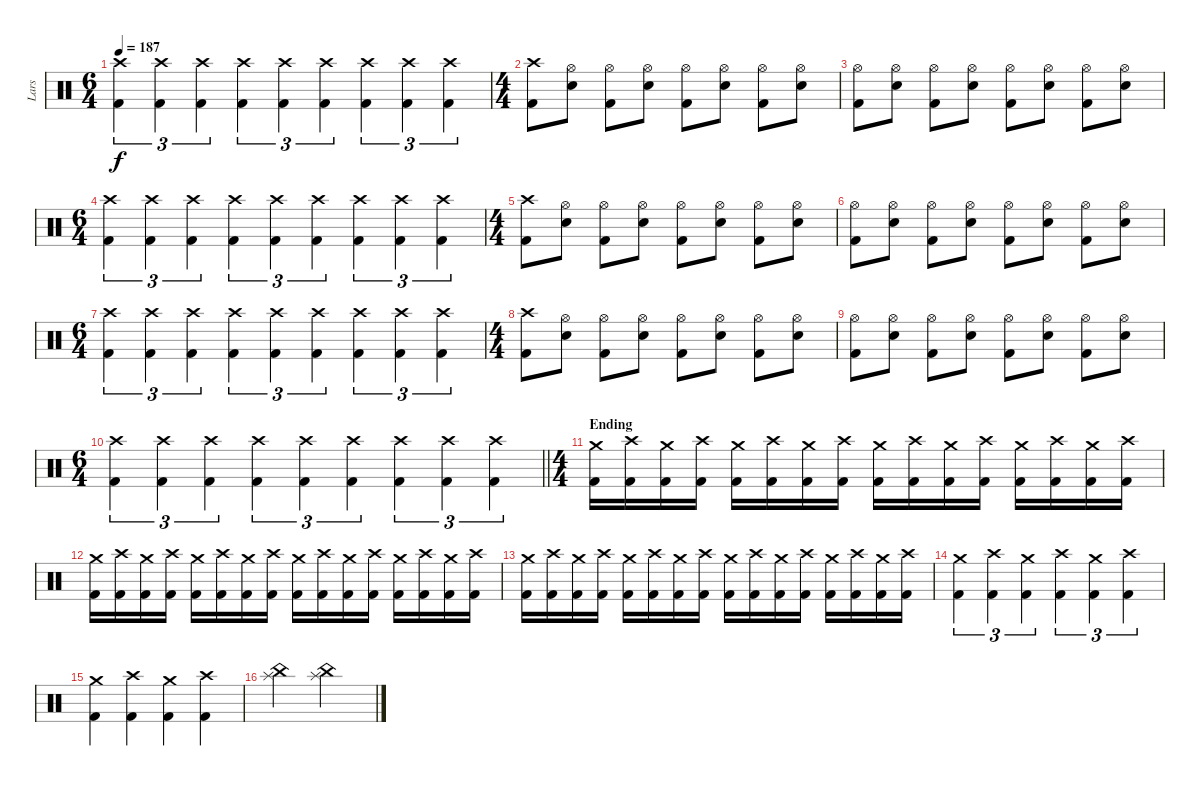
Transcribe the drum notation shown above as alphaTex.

\track ("Lars" "Lars") {instrument percussion}
\staff {score}
\articulation defaults
\ts (6 4)
\tempo 187
\clef neutral
\ks c
("Crash high (hit)" "Kick (hit) 2").4{tu (3 2) dy f} ("Crash high (hit)" "Kick (hit) 2").4{tu (3 2)} ("Crash high (hit)" "Kick (hit) 2").4{tu (3 2)} ("Crash high (hit)" "Kick (hit) 2").4{tu (3 2)} ("Crash high (hit)" "Kick (hit) 2").4{tu (3 2)} ("Crash high (hit)" "Kick (hit) 2").4{tu (3 2)} ("Crash high (hit)" "Kick (hit) 2").4{tu (3 2)} ("Crash high (hit)" "Kick (hit) 2").4{tu (3 2)} ("Crash high (hit)" "Kick (hit) 2").4{tu (3 2)} |
\ts (4 4)
("Crash high (hit)" "Kick (hit) 2").8 ("Hi-Hat (open)" "Snare (hit) 2").8 ("Hi-Hat (open)" "Kick (hit) 2").8 ("Hi-Hat (open)" "Snare (hit) 2").8 ("Hi-Hat (open)" "Kick (hit) 2").8 ("Hi-Hat (open)" "Snare (hit) 2").8 ("Hi-Hat (open)" "Kick (hit) 2").8 ("Hi-Hat (open)" "Snare (hit) 2").8 |
("Hi-Hat (open)" "Kick (hit) 2").8 ("Hi-Hat (open)" "Snare (hit) 2").8 ("Hi-Hat (open)" "Kick (hit) 2").8 ("Hi-Hat (open)" "Snare (hit) 2").8 ("Hi-Hat (open)" "Kick (hit) 2").8 ("Hi-Hat (open)" "Snare (hit) 2").8 ("Hi-Hat (open)" "Kick (hit) 2").8 ("Hi-Hat (open)" "Snare (hit) 2").8 |
\ts (6 4)
("Crash high (hit)" "Kick (hit) 2").4{tu (3 2)} ("Crash high (hit)" "Kick (hit) 2").4{tu (3 2)} ("Crash high (hit)" "Kick (hit) 2").4{tu (3 2)} ("Crash high (hit)" "Kick (hit) 2").4{tu (3 2)} ("Crash high (hit)" "Kick (hit) 2").4{tu (3 2)} ("Crash high (hit)" "Kick (hit) 2").4{tu (3 2)} ("Crash high (hit)" "Kick (hit) 2").4{tu (3 2)} ("Crash high (hit)" "Kick (hit) 2").4{tu (3 2)} ("Crash high (hit)" "Kick (hit) 2").4{tu (3 2)} |
\ts (4 4)
("Crash high (hit)" "Kick (hit) 2").8 ("Hi-Hat (open)" "Snare (hit) 2").8 ("Hi-Hat (open)" "Kick (hit) 2").8 ("Hi-Hat (open)" "Snare (hit) 2").8 ("Hi-Hat (open)" "Kick (hit) 2").8 ("Hi-Hat (open)" "Snare (hit) 2").8 ("Hi-Hat (open)" "Kick (hit) 2").8 ("Hi-Hat (open)" "Snare (hit) 2").8 |
("Hi-Hat (open)" "Kick (hit) 2").8 ("Hi-Hat (open)" "Snare (hit) 2").8 ("Hi-Hat (open)" "Kick (hit) 2").8 ("Hi-Hat (open)" "Snare (hit) 2").8 ("Hi-Hat (open)" "Kick (hit) 2").8 ("Hi-Hat (open)" "Snare (hit) 2").8 ("Hi-Hat (open)" "Kick (hit) 2").8 ("Hi-Hat (open)" "Snare (hit) 2").8 |
\ts (6 4)
("Crash high (hit)" "Kick (hit) 2").4{tu (3 2)} ("Crash high (hit)" "Kick (hit) 2").4{tu (3 2)} ("Crash high (hit)" "Kick (hit) 2").4{tu (3 2)} ("Crash high (hit)" "Kick (hit) 2").4{tu (3 2)} ("Crash high (hit)" "Kick (hit) 2").4{tu (3 2)} ("Crash high (hit)" "Kick (hit) 2").4{tu (3 2)} ("Crash high (hit)" "Kick (hit) 2").4{tu (3 2)} ("Crash high (hit)" "Kick (hit) 2").4{tu (3 2)} ("Crash high (hit)" "Kick (hit) 2").4{tu (3 2)} |
\ts (4 4)
("Crash high (hit)" "Kick (hit) 2").8 ("Hi-Hat (open)" "Snare (hit) 2").8 ("Hi-Hat (open)" "Kick (hit) 2").8 ("Hi-Hat (open)" "Snare (hit) 2").8 ("Hi-Hat (open)" "Kick (hit) 2").8 ("Hi-Hat (open)" "Snare (hit) 2").8 ("Hi-Hat (open)" "Kick (hit) 2").8 ("Hi-Hat (open)" "Snare (hit) 2").8 |
("Hi-Hat (open)" "Kick (hit) 2").8 ("Hi-Hat (open)" "Snare (hit) 2").8 ("Hi-Hat (open)" "Kick (hit) 2").8 ("Hi-Hat (open)" "Snare (hit) 2").8 ("Hi-Hat (open)" "Kick (hit) 2").8 ("Hi-Hat (open)" "Snare (hit) 2").8 ("Hi-Hat (open)" "Kick (hit) 2").8 ("Hi-Hat (open)" "Snare (hit) 2").8 |
\ts (6 4)
\barLineRight lightlight
("Crash high (hit)" "Kick (hit) 2").4{tu (3 2)} ("Crash high (hit)" "Kick (hit) 2").4{tu (3 2)} ("Crash high (hit)" "Kick (hit) 2").4{tu (3 2)} ("Crash high (hit)" "Kick (hit) 2").4{tu (3 2)} ("Crash high (hit)" "Kick (hit) 2").4{tu (3 2)} ("Crash high (hit)" "Kick (hit) 2").4{tu (3 2)} ("Crash high (hit)" "Kick (hit) 2").4{tu (3 2)} ("Crash high (hit)" "Kick (hit) 2").4{tu (3 2)} ("Crash high (hit)" "Kick (hit) 2").4{tu (3 2)} |
\ts (4 4)
\section ("" "Ending")
("Crash medium (hit)" "Kick (hit) 2").16 ("Crash high (hit)" "Kick (hit) 2").16 ("Crash medium (hit)" "Kick (hit) 2").16 ("Crash high (hit)" "Kick (hit) 2").16 ("Crash medium (hit)" "Kick (hit) 2").16 ("Crash high (hit)" "Kick (hit) 2").16 ("Crash medium (hit)" "Kick (hit) 2").16 ("Crash high (hit)" "Kick (hit) 2").16 ("Crash medium (hit)" "Kick (hit) 2").16 ("Crash high (hit)" "Kick (hit) 2").16 ("Crash medium (hit)" "Kick (hit) 2").16 ("Crash high (hit)" "Kick (hit) 2").16 ("Crash medium (hit)" "Kick (hit) 2").16 ("Crash high (hit)" "Kick (hit) 2").16 ("Crash medium (hit)" "Kick (hit) 2").16 ("Crash high (hit)" "Kick (hit) 2").16 |
("Crash medium (hit)" "Kick (hit) 2").16 ("Crash high (hit)" "Kick (hit) 2").16 ("Crash medium (hit)" "Kick (hit) 2").16 ("Crash high (hit)" "Kick (hit) 2").16 ("Crash medium (hit)" "Kick (hit) 2").16 ("Crash high (hit)" "Kick (hit) 2").16 ("Crash medium (hit)" "Kick (hit) 2").16 ("Crash high (hit)" "Kick (hit) 2").16 ("Crash medium (hit)" "Kick (hit) 2").16 ("Crash high (hit)" "Kick (hit) 2").16 ("Crash medium (hit)" "Kick (hit) 2").16 ("Crash high (hit)" "Kick (hit) 2").16 ("Crash medium (hit)" "Kick (hit) 2").16 ("Crash high (hit)" "Kick (hit) 2").16 ("Crash medium (hit)" "Kick (hit) 2").16 ("Crash high (hit)" "Kick (hit) 2").16 |
("Crash medium (hit)" "Kick (hit) 2").16 ("Crash high (hit)" "Kick (hit) 2").16 ("Crash medium (hit)" "Kick (hit) 2").16 ("Crash high (hit)" "Kick (hit) 2").16 ("Crash medium (hit)" "Kick (hit) 2").16 ("Crash high (hit)" "Kick (hit) 2").16 ("Crash medium (hit)" "Kick (hit) 2").16 ("Crash high (hit)" "Kick (hit) 2").16 ("Crash medium (hit)" "Kick (hit) 2").16 ("Crash high (hit)" "Kick (hit) 2").16 ("Crash medium (hit)" "Kick (hit) 2").16 ("Crash high (hit)" "Kick (hit) 2").16 ("Crash medium (hit)" "Kick (hit) 2").16 ("Crash high (hit)" "Kick (hit) 2").16 ("Crash medium (hit)" "Kick (hit) 2").16 ("Crash high (hit)" "Kick (hit) 2").16 |
("Crash medium (hit)" "Kick (hit) 2").4{tu (3 2)} ("Crash high (hit)" "Kick (hit) 2").4{tu (3 2)} ("Crash medium (hit)" "Kick (hit) 2").4{tu (3 2)} ("Crash high (hit)" "Kick (hit) 2").4{tu (3 2)} ("Crash medium (hit)" "Kick (hit) 2").4{tu (3 2)} ("Crash high (hit)" "Kick (hit) 2").4{tu (3 2)} |
("Crash medium (hit)" "Kick (hit) 2").4 ("Crash high (hit)" "Kick (hit) 2").4 ("Crash medium (hit)" "Kick (hit) 2").4 ("Crash high (hit)" "Kick (hit) 2").4 |
("Splash (hit)" "China (hit)").2 ("Splash (hit)" "China (hit)").2
